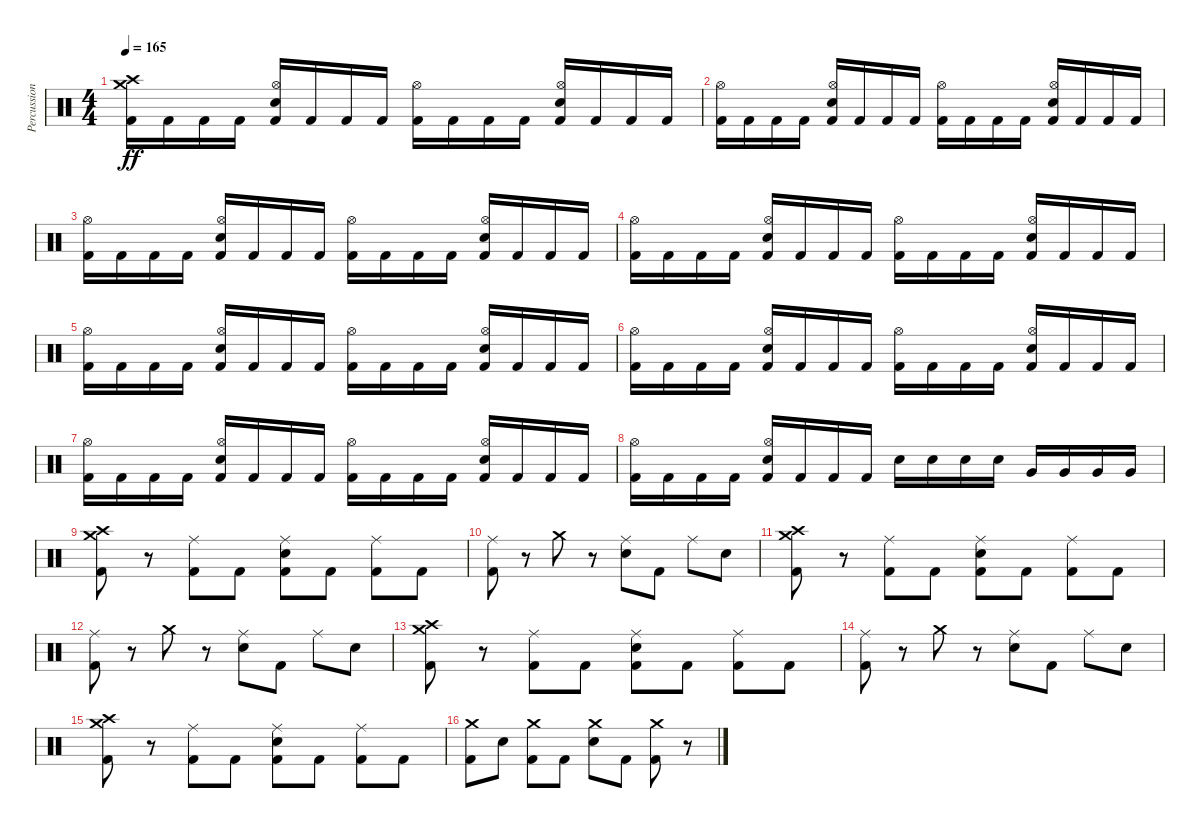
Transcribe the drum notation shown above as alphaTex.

\track ("Percussion" "Percussion") {instrument percussion}
\staff {score}
\articulation defaults
\ts (4 4)
\tempo 165
\clef neutral
\ks c
("Kick (hit) 2" "Crash medium (hit)" "Crash high (hit)").16{dy ff} "Kick (hit) 2".16 "Kick (hit) 2".16 "Kick (hit) 2".16 ("Kick (hit) 2" "Hi-Hat (open)" "Electric Snare (hit)").16 "Kick (hit) 2".16 "Kick (hit) 2".16 "Kick (hit) 2".16 ("Kick (hit) 2" "Hi-Hat (open)").16 "Kick (hit) 2".16 "Kick (hit) 2".16 "Kick (hit) 2".16 ("Kick (hit) 2" "Hi-Hat (open)" "Electric Snare (hit)").16 "Kick (hit) 2".16 "Kick (hit) 2".16 "Kick (hit) 2".16 |
("Kick (hit) 2" "Hi-Hat (open)").16 "Kick (hit) 2".16 "Kick (hit) 2".16 "Kick (hit) 2".16 ("Kick (hit) 2" "Hi-Hat (open)" "Electric Snare (hit)").16 "Kick (hit) 2".16 "Kick (hit) 2".16 "Kick (hit) 2".16 ("Kick (hit) 2" "Hi-Hat (open)").16 "Kick (hit) 2".16 "Kick (hit) 2".16 "Kick (hit) 2".16 ("Kick (hit) 2" "Hi-Hat (open)" "Electric Snare (hit)").16 "Kick (hit) 2".16 "Kick (hit) 2".16 "Kick (hit) 2".16 |
("Kick (hit) 2" "Hi-Hat (open)").16 "Kick (hit) 2".16 "Kick (hit) 2".16 "Kick (hit) 2".16 ("Kick (hit) 2" "Hi-Hat (open)" "Electric Snare (hit)").16 "Kick (hit) 2".16 "Kick (hit) 2".16 "Kick (hit) 2".16 ("Kick (hit) 2" "Hi-Hat (open)").16 "Kick (hit) 2".16 "Kick (hit) 2".16 "Kick (hit) 2".16 ("Kick (hit) 2" "Hi-Hat (open)" "Electric Snare (hit)").16 "Kick (hit) 2".16 "Kick (hit) 2".16 "Kick (hit) 2".16 |
("Kick (hit) 2" "Hi-Hat (open)").16 "Kick (hit) 2".16 "Kick (hit) 2".16 "Kick (hit) 2".16 ("Kick (hit) 2" "Hi-Hat (open)" "Electric Snare (hit)").16 "Kick (hit) 2".16 "Kick (hit) 2".16 "Kick (hit) 2".16 ("Kick (hit) 2" "Hi-Hat (open)").16 "Kick (hit) 2".16 "Kick (hit) 2".16 "Kick (hit) 2".16 ("Kick (hit) 2" "Hi-Hat (open)" "Electric Snare (hit)").16 "Kick (hit) 2".16 "Kick (hit) 2".16 "Kick (hit) 2".16 |
("Kick (hit) 2" "Hi-Hat (open)").16 "Kick (hit) 2".16 "Kick (hit) 2".16 "Kick (hit) 2".16 ("Kick (hit) 2" "Hi-Hat (open)" "Electric Snare (hit)").16 "Kick (hit) 2".16 "Kick (hit) 2".16 "Kick (hit) 2".16 ("Kick (hit) 2" "Hi-Hat (open)").16 "Kick (hit) 2".16 "Kick (hit) 2".16 "Kick (hit) 2".16 ("Kick (hit) 2" "Hi-Hat (open)" "Electric Snare (hit)").16 "Kick (hit) 2".16 "Kick (hit) 2".16 "Kick (hit) 2".16 |
("Kick (hit) 2" "Hi-Hat (open)").16 "Kick (hit) 2".16 "Kick (hit) 2".16 "Kick (hit) 2".16 ("Kick (hit) 2" "Hi-Hat (open)" "Electric Snare (hit)").16 "Kick (hit) 2".16 "Kick (hit) 2".16 "Kick (hit) 2".16 ("Kick (hit) 2" "Hi-Hat (open)").16 "Kick (hit) 2".16 "Kick (hit) 2".16 "Kick (hit) 2".16 ("Kick (hit) 2" "Hi-Hat (open)" "Electric Snare (hit)").16 "Kick (hit) 2".16 "Kick (hit) 2".16 "Kick (hit) 2".16 |
("Kick (hit) 2" "Hi-Hat (open)").16 "Kick (hit) 2".16 "Kick (hit) 2".16 "Kick (hit) 2".16 ("Kick (hit) 2" "Hi-Hat (open)" "Electric Snare (hit)").16 "Kick (hit) 2".16 "Kick (hit) 2".16 "Kick (hit) 2".16 ("Kick (hit) 2" "Hi-Hat (open)").16 "Kick (hit) 2".16 "Kick (hit) 2".16 "Kick (hit) 2".16 ("Kick (hit) 2" "Hi-Hat (open)" "Electric Snare (hit)").16 "Kick (hit) 2".16 "Kick (hit) 2".16 "Kick (hit) 2".16 |
("Kick (hit) 2" "Hi-Hat (open)").16 "Kick (hit) 2".16 "Kick (hit) 2".16 "Kick (hit) 2".16 ("Kick (hit) 2" "Hi-Hat (open)" "Electric Snare (hit)").16 "Kick (hit) 2".16 "Kick (hit) 2".16 "Kick (hit) 2".16 "Electric Snare (hit)".16 "Electric Snare (hit)".16 "Electric Snare (hit)".16 "Electric Snare (hit)".16 "Very Low Tom (hit)".16 "Very Low Tom (hit)".16 "Very Low Tom (hit)".16 "Very Low Tom (hit)".16 |
("Kick (hit) 2" "Crash medium (hit)" "Crash high (hit)").8 r.8 ("Kick (hit) 2" "Ride (middle)").8 "Kick (hit) 2".8 ("Kick (hit) 2" "Electric Snare (hit)" "Ride (middle)").8 "Kick (hit) 2".8 ("Kick (hit) 2" "Ride (middle)").8 "Kick (hit) 2".8 |
("Kick (hit) 2" "Ride (middle)").8 r.8 "Crash medium (hit)".8 r.8 ("Electric Snare (hit)" "Ride (middle)").8 "Kick (hit) 2".8 "Ride (middle)".8 "Electric Snare (hit)".8 |
("Kick (hit) 2" "Crash medium (hit)" "Crash high (hit)").8 r.8 ("Kick (hit) 2" "Ride (middle)").8 "Kick (hit) 2".8 ("Kick (hit) 2" "Electric Snare (hit)" "Ride (middle)").8 "Kick (hit) 2".8 ("Kick (hit) 2" "Ride (middle)").8 "Kick (hit) 2".8 |
("Kick (hit) 2" "Ride (middle)").8 r.8 "Crash medium (hit)".8 r.8 ("Electric Snare (hit)" "Ride (middle)").8 "Kick (hit) 2".8 "Ride (middle)".8 "Electric Snare (hit)".8 |
("Kick (hit) 2" "Crash medium (hit)" "Crash high (hit)").8 r.8 ("Kick (hit) 2" "Ride (middle)").8 "Kick (hit) 2".8 ("Kick (hit) 2" "Electric Snare (hit)" "Ride (middle)").8 "Kick (hit) 2".8 ("Kick (hit) 2" "Ride (middle)").8 "Kick (hit) 2".8 |
("Kick (hit) 2" "Ride (middle)").8 r.8 "Crash medium (hit)".8 r.8 ("Electric Snare (hit)" "Ride (middle)").8 "Kick (hit) 2".8 "Ride (middle)".8 "Electric Snare (hit)".8 |
("Kick (hit) 2" "Crash medium (hit)" "Crash high (hit)").8 r.8 ("Kick (hit) 2" "Ride (middle)").8 "Kick (hit) 2".8 ("Kick (hit) 2" "Electric Snare (hit)" "Ride (middle)").8 "Kick (hit) 2".8 ("Kick (hit) 2" "Ride (middle)").8 "Kick (hit) 2".8 |
("Kick (hit) 2" "Crash medium (hit)").8 "Electric Snare (hit)".8 ("Kick (hit) 2" "Crash medium (hit)").8 "Kick (hit) 2".8 ("Crash medium (hit)" "Electric Snare (hit)").8 "Kick (hit) 2".8 ("Kick (hit) 2" "Crash medium (hit)").8 r.8
